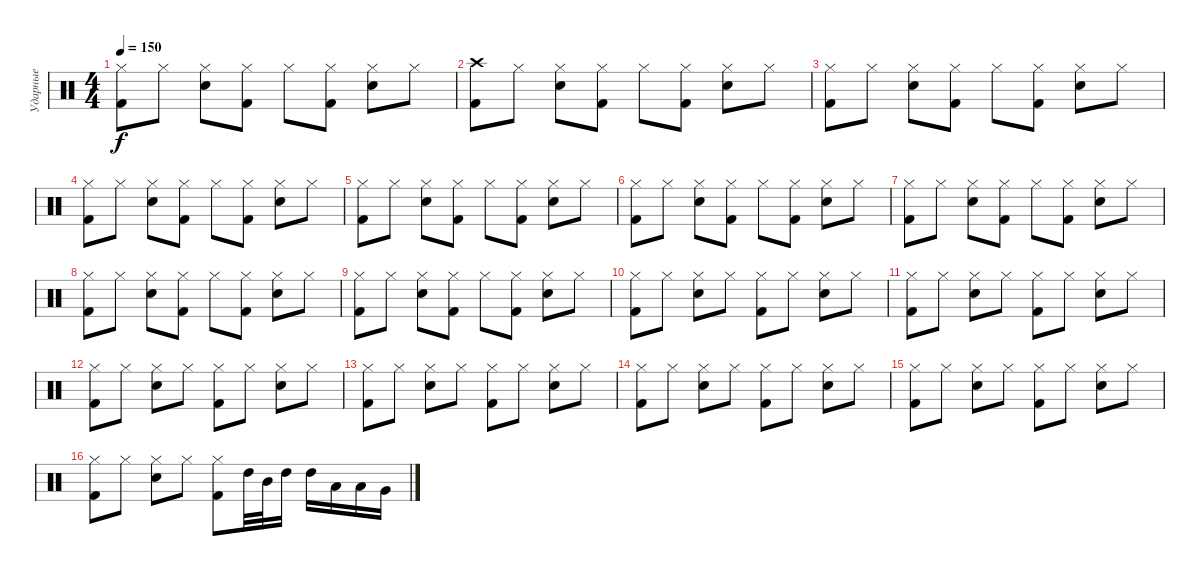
\track ("Ударные" "Ударные") {instrument percussion}
\staff {score}
\articulation defaults
\ts (4 4)
\tempo 150
\clef neutral
\ks c
("Hi-Hat (closed)" "Kick (hit) 2").8{dy f} "Hi-Hat (closed)".8 ("Hi-Hat (closed)" "Snare (hit) 2").8 ("Hi-Hat (closed)" "Kick (hit) 2").8 "Hi-Hat (closed)".8 ("Hi-Hat (closed)" "Kick (hit) 2").8 ("Hi-Hat (closed)" "Snare (hit) 2").8 "Hi-Hat (closed)".8 |
("Crash high (hit)" "Kick (hit) 2").8 "Hi-Hat (closed)".8 ("Hi-Hat (closed)" "Snare (hit) 2").8 ("Hi-Hat (closed)" "Kick (hit) 2").8 "Hi-Hat (closed)".8 ("Hi-Hat (closed)" "Kick (hit) 2").8 ("Hi-Hat (closed)" "Snare (hit) 2").8 "Hi-Hat (closed)".8 |
("Hi-Hat (closed)" "Kick (hit) 2").8 "Hi-Hat (closed)".8 ("Hi-Hat (closed)" "Snare (hit) 2").8 ("Hi-Hat (closed)" "Kick (hit) 2").8 "Hi-Hat (closed)".8 ("Hi-Hat (closed)" "Kick (hit) 2").8 ("Hi-Hat (closed)" "Snare (hit) 2").8 "Hi-Hat (closed)".8 |
("Hi-Hat (closed)" "Kick (hit) 2").8 "Hi-Hat (closed)".8 ("Hi-Hat (closed)" "Snare (hit) 2").8 ("Hi-Hat (closed)" "Kick (hit) 2").8 "Hi-Hat (closed)".8 ("Hi-Hat (closed)" "Kick (hit) 2").8 ("Hi-Hat (closed)" "Snare (hit) 2").8 "Hi-Hat (closed)".8 |
("Hi-Hat (closed)" "Kick (hit) 2").8 "Hi-Hat (closed)".8 ("Hi-Hat (closed)" "Snare (hit) 2").8 ("Hi-Hat (closed)" "Kick (hit) 2").8 "Hi-Hat (closed)".8 ("Hi-Hat (closed)" "Kick (hit) 2").8 ("Hi-Hat (closed)" "Snare (hit) 2").8 "Hi-Hat (closed)".8 |
("Hi-Hat (closed)" "Kick (hit) 2").8 "Hi-Hat (closed)".8 ("Hi-Hat (closed)" "Snare (hit) 2").8 ("Hi-Hat (closed)" "Kick (hit) 2").8 "Hi-Hat (closed)".8 ("Hi-Hat (closed)" "Kick (hit) 2").8 ("Hi-Hat (closed)" "Snare (hit) 2").8 "Hi-Hat (closed)".8 |
("Hi-Hat (closed)" "Kick (hit) 2").8 "Hi-Hat (closed)".8 ("Hi-Hat (closed)" "Snare (hit) 2").8 ("Hi-Hat (closed)" "Kick (hit) 2").8 "Hi-Hat (closed)".8 ("Hi-Hat (closed)" "Kick (hit) 2").8 ("Hi-Hat (closed)" "Snare (hit) 2").8 "Hi-Hat (closed)".8 |
("Hi-Hat (closed)" "Kick (hit) 2").8 "Hi-Hat (closed)".8 ("Hi-Hat (closed)" "Snare (hit) 2").8 ("Hi-Hat (closed)" "Kick (hit) 2").8 "Hi-Hat (closed)".8 ("Hi-Hat (closed)" "Kick (hit) 2").8 ("Hi-Hat (closed)" "Snare (hit) 2").8 "Hi-Hat (closed)".8 |
("Hi-Hat (closed)" "Kick (hit) 2").8 "Hi-Hat (closed)".8 ("Hi-Hat (closed)" "Snare (hit) 2").8 ("Hi-Hat (closed)" "Kick (hit) 2").8 "Hi-Hat (closed)".8 ("Hi-Hat (closed)" "Kick (hit) 2").8 ("Hi-Hat (closed)" "Snare (hit) 2").8 "Hi-Hat (closed)".8 |
("Hi-Hat (closed)" "Kick (hit) 2").8 "Hi-Hat (closed)".8 ("Hi-Hat (closed)" "Snare (hit) 2").8 "Hi-Hat (closed)".8 ("Hi-Hat (closed)" "Kick (hit) 2").8 "Hi-Hat (closed)".8 ("Hi-Hat (closed)" "Snare (hit) 2").8 "Hi-Hat (closed)".8 |
("Hi-Hat (closed)" "Kick (hit) 2").8 "Hi-Hat (closed)".8 ("Hi-Hat (closed)" "Snare (hit) 2").8 "Hi-Hat (closed)".8 ("Hi-Hat (closed)" "Kick (hit) 2").8 "Hi-Hat (closed)".8 ("Hi-Hat (closed)" "Snare (hit) 2").8 "Hi-Hat (closed)".8 |
("Hi-Hat (closed)" "Kick (hit) 2").8 "Hi-Hat (closed)".8 ("Hi-Hat (closed)" "Snare (hit) 2").8 "Hi-Hat (closed)".8 ("Hi-Hat (closed)" "Kick (hit) 2").8 "Hi-Hat (closed)".8 ("Hi-Hat (closed)" "Snare (hit) 2").8 "Hi-Hat (closed)".8 |
("Hi-Hat (closed)" "Kick (hit) 2").8 "Hi-Hat (closed)".8 ("Hi-Hat (closed)" "Snare (hit) 2").8 "Hi-Hat (closed)".8 ("Hi-Hat (closed)" "Kick (hit) 2").8 "Hi-Hat (closed)".8 ("Hi-Hat (closed)" "Snare (hit) 2").8 "Hi-Hat (closed)".8 |
("Hi-Hat (closed)" "Kick (hit) 2").8 "Hi-Hat (closed)".8 ("Hi-Hat (closed)" "Snare (hit) 2").8 "Hi-Hat (closed)".8 ("Hi-Hat (closed)" "Kick (hit) 2").8 "Hi-Hat (closed)".8 ("Hi-Hat (closed)" "Snare (hit) 2").8 "Hi-Hat (closed)".8 |
("Hi-Hat (closed)" "Kick (hit) 2").8 "Hi-Hat (closed)".8 ("Hi-Hat (closed)" "Snare (hit) 2").8 "Hi-Hat (closed)".8 ("Hi-Hat (closed)" "Kick (hit) 2").8 "Hi-Hat (closed)".8 ("Hi-Hat (closed)" "Snare (hit) 2").8 "Hi-Hat (closed)".8 |
("Hi-Hat (closed)" "Kick (hit) 2").8 "Hi-Hat (closed)".8 ("Hi-Hat (closed)" "Snare (hit) 2").8 "Hi-Hat (closed)".8 ("Hi-Hat (closed)" "Kick (hit) 2").8 "High Tom (hit)".32 "Mid Tom (hit)".32 "High Tom (hit)".16 "High Tom (hit)".16 "Low Tom (hit)".16 "Low Tom (hit)".16 "Very Low Tom (hit)".16
